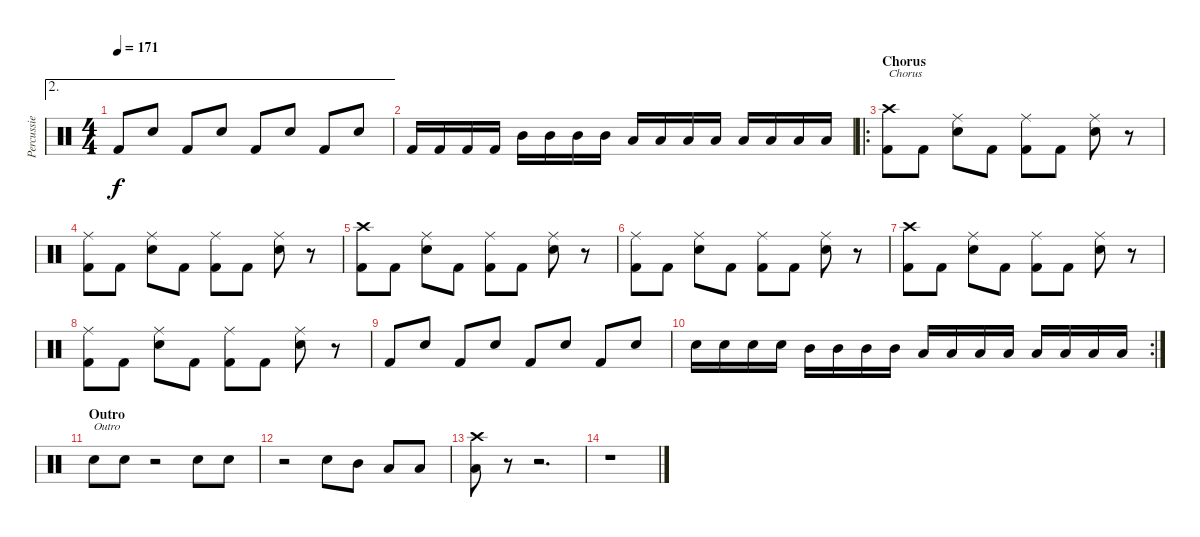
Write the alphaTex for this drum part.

\track ("Percussie" "Percussie") {instrument percussion}
\staff {score}
\articulation defaults
\ae 2
\ts (4 4)
\tempo 171
\clef neutral
\ks c "Kick (hit) 2".8{dy f} "Snare (hit) 2".8 "Kick (hit) 2".8 "Snare (hit) 2".8 "Kick (hit) 2".8 "Snare (hit) 2".8 "Kick (hit) 2".8 "Snare (hit) 2".8
|
"Kick (hit) 2".16 "Kick (hit) 2".16 "Kick (hit) 2".16 "Kick (hit) 2".16 "Mid Tom (hit)".16 "Mid Tom (hit)".16 "Mid Tom (hit)".16 "Mid Tom (hit)".16 "Low Tom (hit)".16 "Low Tom (hit)".16 "Low Tom (hit)".16 "Low Tom (hit)".16 "Low Floor Tom (hit)".16 "Low Floor Tom (hit)".16 "Low Floor Tom (hit)".16 "Low Floor Tom (hit)".16 |
\ro
\section ("" "Chorus")
("Crash high (hit)" "Kick (hit) 2").8{txt "Chorus"} "Kick (hit) 2".8 ("Ride (middle)" "Snare (hit) 2").8 "Kick (hit) 2".8 ("Ride (middle)" "Kick (hit) 2").8 "Kick (hit) 2".8 ("Ride (middle)" "Snare (hit) 2").8 r.8 |
("Ride (middle)" "Kick (hit) 2").8 "Kick (hit) 2".8 ("Ride (middle)" "Snare (hit) 2").8 "Kick (hit) 2".8 ("Ride (middle)" "Kick (hit) 2").8 "Kick (hit) 2".8 ("Ride (middle)" "Snare (hit) 2").8 r.8 |
("Crash high (hit)" "Kick (hit) 2").8 "Kick (hit) 2".8 ("Ride (middle)" "Snare (hit) 2").8 "Kick (hit) 2".8 ("Ride (middle)" "Kick (hit) 2").8 "Kick (hit) 2".8 ("Ride (middle)" "Snare (hit) 2").8 r.8 |
("Ride (middle)" "Kick (hit) 2").8 "Kick (hit) 2".8 ("Ride (middle)" "Snare (hit) 2").8 "Kick (hit) 2".8 ("Ride (middle)" "Kick (hit) 2").8 "Kick (hit) 2".8 ("Ride (middle)" "Snare (hit) 2").8 r.8 |
("Crash high (hit)" "Kick (hit) 2").8 "Kick (hit) 2".8 ("Ride (middle)" "Snare (hit) 2").8 "Kick (hit) 2".8 ("Ride (middle)" "Kick (hit) 2").8 "Kick (hit) 2".8 ("Ride (middle)" "Snare (hit) 2").8 r.8 |
("Ride (middle)" "Kick (hit) 2").8 "Kick (hit) 2".8 ("Ride (middle)" "Snare (hit) 2").8 "Kick (hit) 2".8 ("Ride (middle)" "Kick (hit) 2").8 "Kick (hit) 2".8 ("Ride (middle)" "Snare (hit) 2").8 r.8 |
"Kick (hit) 2".8 "Snare (hit) 2".8 "Kick (hit) 2".8 "Snare (hit) 2".8 "Kick (hit) 2".8 "Snare (hit) 2".8 "Kick (hit) 2".8 "Snare (hit) 2".8 |
\rc 2 "Snare (hit) 2".16 "Snare (hit) 2".16 "Snare (hit) 2".16 "Snare (hit) 2".16 "Mid Tom (hit)".16 "Mid Tom (hit)".16 "Mid Tom (hit)".16 "Mid Tom (hit)".16 "Low Tom (hit)".16 "Low Tom (hit)".16 "Low Tom (hit)".16 "Low Tom (hit)".16 "Low Floor Tom (hit)".16 "Low Floor Tom (hit)".16 "Low Floor Tom (hit)".16 "Low Floor Tom (hit)".16
|
\section ("" "Outro")
"Snare (hit) 2".8{txt "Outro"} "Snare (hit) 2".8 r.2 "Snare (hit) 2".8 "Snare (hit) 2".8 |
r.2 "Snare (hit) 2".8 "Mid Tom (hit)".8 "Low Tom (hit)".8 "Low Floor Tom (hit)".8 |
("Crash high (hit)" "Low Floor Tom (hit)").8 r.8 r.2{d} |
r.1
